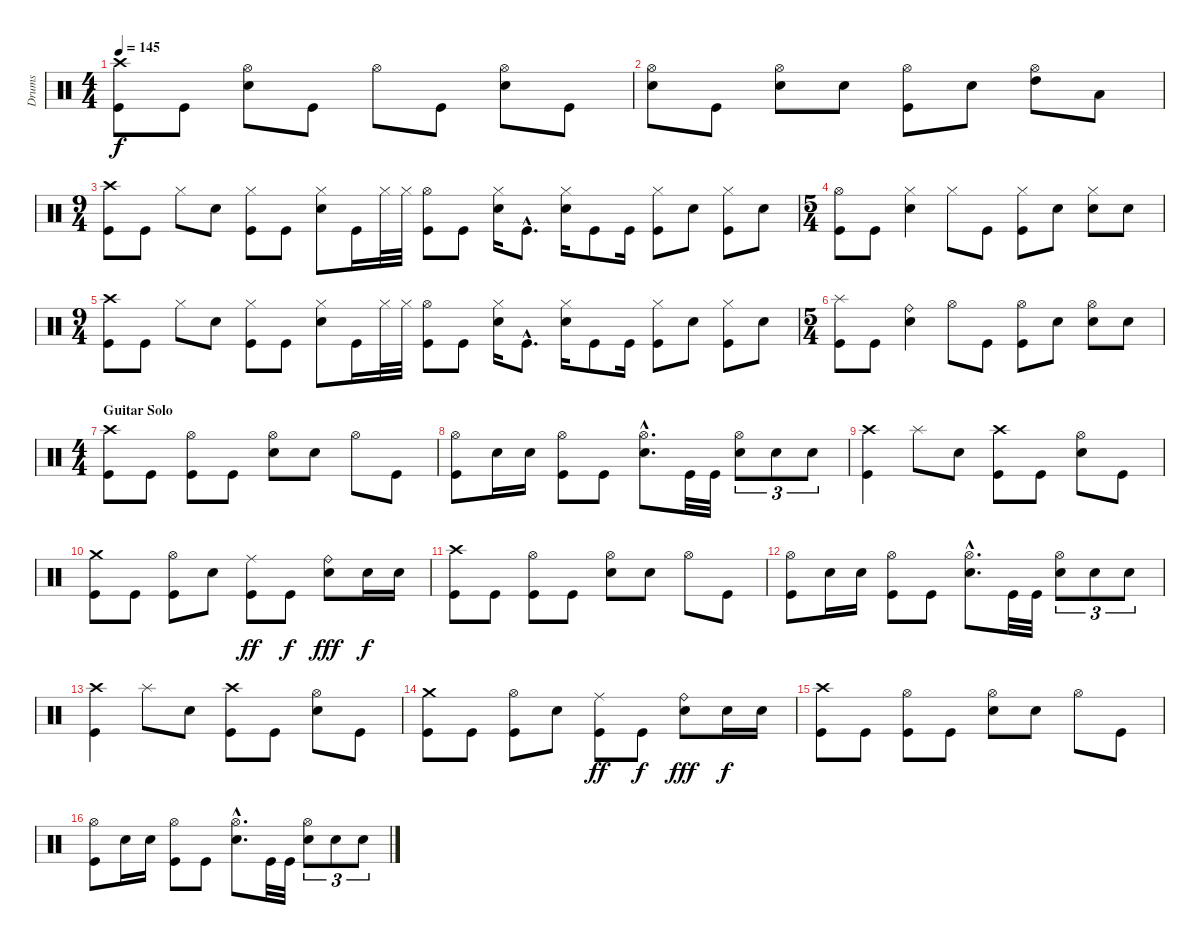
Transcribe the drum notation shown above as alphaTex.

\track ("Drums" "Drums") {instrument percussion}
\staff {score}
\articulation defaults
\ts (4 4)
\tempo 145
\clef neutral
\ks c
("Crash high (hit)" "Kick (hit)").8{dy f} "Kick (hit)".8 ("Hi-Hat (open)" "Electric Snare (hit)").8 "Kick (hit)".8 "Hi-Hat (open)".8 "Kick (hit)".8 ("Hi-Hat (open)" "Electric Snare (hit)").8 "Kick (hit)".8 |
("Hi-Hat (open)" "Electric Snare (hit)").8 "Kick (hit)".8 ("Hi-Hat (open)" "Electric Snare (hit)").8 "Electric Snare (hit)".8 ("Hi-Hat (open)" "Kick (hit)").8 "Electric Snare (hit)".8 ("Hi-Hat (open)" "High Tom (hit)").8 "Low Tom (hit)".8 |
\ts (9 4)
("Crash high (hit)" "Kick (hit)").8 "Kick (hit)".8 "Hi-Hat (closed)".8 "Electric Snare (hit)".8 ("Hi-Hat (closed)" "Kick (hit)").8 "Kick (hit)".8 ("Hi-Hat (closed)" "Electric Snare (hit)").8 "Kick (hit)".16 "Hi-Hat (closed)".32 "Hi-Hat (closed)".32 ("Hi-Hat (open)" "Kick (hit)").8 "Kick (hit)".8 ("Hi-Hat (closed)" "Electric Snare (hit)").16 "Kick (hit)"{hac}.8{d} ("Hi-Hat (closed)" "Electric Snare (hit)").16 "Kick (hit)".8 "Kick (hit)".16 ("Hi-Hat (closed)" "Kick (hit)").8 "Electric Snare (hit)".8 ("Hi-Hat (closed)" "Kick (hit)").8 "Electric Snare (hit)".8 |
\ts (5 4)
("Hi-Hat (open)" "Kick (hit)").8 "Kick (hit)".8 ("Hi-Hat (closed)" "Electric Snare (hit)").4 "Hi-Hat (closed)".8 "Kick (hit)".8 ("Hi-Hat (closed)" "Kick (hit)").8 "Electric Snare (hit)".8 ("Hi-Hat (closed)" "Electric Snare (hit)").8 "Electric Snare (hit)".8 |
\ts (9 4)
("Crash high (hit)" "Kick (hit)").8 "Kick (hit)".8 "Hi-Hat (closed)".8 "Electric Snare (hit)".8 ("Hi-Hat (closed)" "Kick (hit)").8 "Kick (hit)".8 ("Hi-Hat (closed)" "Electric Snare (hit)").8 "Kick (hit)".16 "Hi-Hat (closed)".32 "Hi-Hat (closed)".32 ("Hi-Hat (open)" "Kick (hit)").8 "Kick (hit)".8 ("Hi-Hat (closed)" "Electric Snare (hit)").16 "Kick (hit)"{hac}.8{d} ("Hi-Hat (closed)" "Electric Snare (hit)").16 "Kick (hit)".8 "Kick (hit)".16 ("Hi-Hat (closed)" "Kick (hit)").8 "Electric Snare (hit)".8 ("Hi-Hat (closed)" "Kick (hit)").8 "Electric Snare (hit)".8 |
\ts (5 4)
("Splash (hit)" "Kick (hit)").8 "Kick (hit)".8 ("Ride (bell)" "Electric Snare (hit)").4 "Hi-Hat (open)".8 "Kick (hit)".8 ("Hi-Hat (open)" "Kick (hit)").8 "Electric Snare (hit)".8 ("Hi-Hat (open)" "Electric Snare (hit)").8 "Electric Snare (hit)".8 |
\ts (4 4)
\section ("" "Guitar Solo")
("Crash high (hit)" "Kick (hit)").8 "Kick (hit)".8 ("Hi-Hat (open)" "Kick (hit)").8 "Kick (hit)".8 ("Hi-Hat (open)" "Electric Snare (hit)").8 "Electric Snare (hit)".8 "Hi-Hat (open)".8 "Kick (hit)".8 |
("Hi-Hat (open)" "Kick (hit)").8 "Electric Snare (hit)".16 "Electric Snare (hit)".16 ("Hi-Hat (open)" "Kick (hit)").8 "Kick (hit)".8 ("Hi-Hat (open)"{hac} "Electric Snare (hit)"{hac}).8{d} "Kick (hit)".32 "Kick (hit)".32 ("Hi-Hat (open)" "Electric Snare (hit)").8{tu (3 2)} "Electric Snare (hit)".8{tu (3 2)} "Electric Snare (hit)".8{tu (3 2)} |
("Crash high (hit)" "Kick (hit)").4 "Splash (hit)".8 "Electric Snare (hit)".8 ("Crash high (hit)" "Kick (hit)").8 "Kick (hit)".8 ("Hi-Hat (open)" "Electric Snare (hit)").8 "Kick (hit)".8 |
("Crash medium (hit)" "Kick (hit)").8 "Kick (hit)".8 ("Hi-Hat (open)" "Kick (hit)").8 "Electric Snare (hit)".8 ("Ride (middle)" "Kick (hit)").8{dy ff} "Kick (hit)".8{dy f} ("Ride (bell)" "Electric Snare (hit)").8{dy fff} "Electric Snare (hit)".16{dy f} "Electric Snare (hit)".16 |
("Crash high (hit)" "Kick (hit)").8 "Kick (hit)".8 ("Hi-Hat (open)" "Kick (hit)").8 "Kick (hit)".8 ("Hi-Hat (open)" "Electric Snare (hit)").8 "Electric Snare (hit)".8 "Hi-Hat (open)".8 "Kick (hit)".8 |
("Hi-Hat (open)" "Kick (hit)").8 "Electric Snare (hit)".16 "Electric Snare (hit)".16 ("Hi-Hat (open)" "Kick (hit)").8 "Kick (hit)".8 ("Hi-Hat (open)"{hac} "Electric Snare (hit)"{hac}).8{d} "Kick (hit)".32 "Kick (hit)".32 ("Hi-Hat (open)" "Electric Snare (hit)").8{tu (3 2)} "Electric Snare (hit)".8{tu (3 2)} "Electric Snare (hit)".8{tu (3 2)} |
("Crash high (hit)" "Kick (hit)").4 "Splash (hit)".8 "Electric Snare (hit)".8 ("Crash high (hit)" "Kick (hit)").8 "Kick (hit)".8 ("Hi-Hat (open)" "Electric Snare (hit)").8 "Kick (hit)".8 |
("Crash medium (hit)" "Kick (hit)").8 "Kick (hit)".8 ("Hi-Hat (open)" "Kick (hit)").8 "Electric Snare (hit)".8 ("Ride (middle)" "Kick (hit)").8{dy ff} "Kick (hit)".8{dy f} ("Ride (bell)" "Electric Snare (hit)").8{dy fff} "Electric Snare (hit)".16{dy f} "Electric Snare (hit)".16 |
("Crash high (hit)" "Kick (hit)").8 "Kick (hit)".8 ("Hi-Hat (open)" "Kick (hit)").8 "Kick (hit)".8 ("Hi-Hat (open)" "Electric Snare (hit)").8 "Electric Snare (hit)".8 "Hi-Hat (open)".8 "Kick (hit)".8 |
("Hi-Hat (open)" "Kick (hit)").8 "Electric Snare (hit)".16 "Electric Snare (hit)".16 ("Hi-Hat (open)" "Kick (hit)").8 "Kick (hit)".8 ("Hi-Hat (open)"{hac} "Electric Snare (hit)"{hac}).8{d} "Kick (hit)".32 "Kick (hit)".32 ("Hi-Hat (open)" "Electric Snare (hit)").8{tu (3 2)} "Electric Snare (hit)".8{tu (3 2)} "Electric Snare (hit)".8{tu (3 2)}
